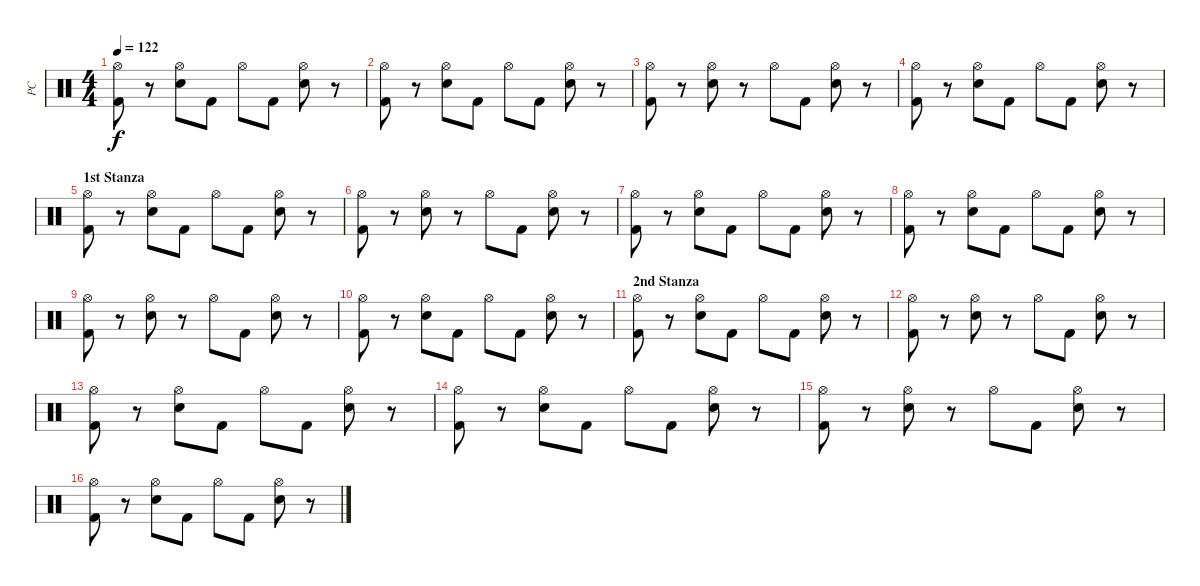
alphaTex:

\track ("PC" "PC") {instrument percussion}
\staff {score}
\articulation defaults
\ts (4 4)
\tempo 122
\clef neutral
\ks c
("Hi-Hat (open)" "Kick (hit) 2").8{dy f} r.8 ("Hi-Hat (open)" "Electric Snare (hit)").8 "Kick (hit) 2".8 "Hi-Hat (open)".8 "Kick (hit) 2".8 ("Hi-Hat (open)" "Electric Snare (hit)").8 r.8 |
("Hi-Hat (open)" "Kick (hit) 2").8 r.8 ("Hi-Hat (open)" "Electric Snare (hit)").8 "Kick (hit) 2".8 "Hi-Hat (open)".8 "Kick (hit) 2".8 ("Hi-Hat (open)" "Electric Snare (hit)").8 r.8 |
("Hi-Hat (open)" "Kick (hit) 2").8 r.8 ("Hi-Hat (open)" "Electric Snare (hit)").8 r.8 "Hi-Hat (open)".8 "Kick (hit) 2".8 ("Hi-Hat (open)" "Electric Snare (hit)").8 r.8 |
("Hi-Hat (open)" "Kick (hit) 2").8 r.8 ("Hi-Hat (open)" "Electric Snare (hit)").8 "Kick (hit) 2".8 "Hi-Hat (open)".8 "Kick (hit) 2".8 ("Hi-Hat (open)" "Electric Snare (hit)").8 r.8 |
\section ("" "1st Stanza")
("Hi-Hat (open)" "Kick (hit) 2").8 r.8 ("Hi-Hat (open)" "Electric Snare (hit)").8 "Kick (hit) 2".8 "Hi-Hat (open)".8 "Kick (hit) 2".8 ("Hi-Hat (open)" "Electric Snare (hit)").8 r.8 |
("Hi-Hat (open)" "Kick (hit) 2").8 r.8 ("Hi-Hat (open)" "Electric Snare (hit)").8 r.8 "Hi-Hat (open)".8 "Kick (hit) 2".8 ("Hi-Hat (open)" "Electric Snare (hit)").8 r.8 |
("Hi-Hat (open)" "Kick (hit) 2").8 r.8 ("Hi-Hat (open)" "Electric Snare (hit)").8 "Kick (hit) 2".8 "Hi-Hat (open)".8 "Kick (hit) 2".8 ("Hi-Hat (open)" "Electric Snare (hit)").8 r.8 |
("Hi-Hat (open)" "Kick (hit) 2").8 r.8 ("Hi-Hat (open)" "Electric Snare (hit)").8 "Kick (hit) 2".8 "Hi-Hat (open)".8 "Kick (hit) 2".8 ("Hi-Hat (open)" "Electric Snare (hit)").8 r.8 |
("Hi-Hat (open)" "Kick (hit) 2").8 r.8 ("Hi-Hat (open)" "Electric Snare (hit)").8 r.8 "Hi-Hat (open)".8 "Kick (hit) 2".8 ("Hi-Hat (open)" "Electric Snare (hit)").8 r.8 |
("Hi-Hat (open)" "Kick (hit) 2").8 r.8 ("Hi-Hat (open)" "Electric Snare (hit)").8 "Kick (hit) 2".8 "Hi-Hat (open)".8 "Kick (hit) 2".8 ("Hi-Hat (open)" "Electric Snare (hit)").8 r.8 |
\section ("" "2nd Stanza")
("Hi-Hat (open)" "Kick (hit) 2").8 r.8 ("Hi-Hat (open)" "Electric Snare (hit)").8 "Kick (hit) 2".8 "Hi-Hat (open)".8 "Kick (hit) 2".8 ("Hi-Hat (open)" "Electric Snare (hit)").8 r.8 |
("Hi-Hat (open)" "Kick (hit) 2").8 r.8 ("Hi-Hat (open)" "Electric Snare (hit)").8 r.8 "Hi-Hat (open)".8 "Kick (hit) 2".8 ("Hi-Hat (open)" "Electric Snare (hit)").8 r.8 |
("Hi-Hat (open)" "Kick (hit) 2").8 r.8 ("Hi-Hat (open)" "Electric Snare (hit)").8 "Kick (hit) 2".8 "Hi-Hat (open)".8 "Kick (hit) 2".8 ("Hi-Hat (open)" "Electric Snare (hit)").8 r.8 |
("Hi-Hat (open)" "Kick (hit) 2").8 r.8 ("Hi-Hat (open)" "Electric Snare (hit)").8 "Kick (hit) 2".8 "Hi-Hat (open)".8 "Kick (hit) 2".8 ("Hi-Hat (open)" "Electric Snare (hit)").8 r.8 |
("Hi-Hat (open)" "Kick (hit) 2").8 r.8 ("Hi-Hat (open)" "Electric Snare (hit)").8 r.8 "Hi-Hat (open)".8 "Kick (hit) 2".8 ("Hi-Hat (open)" "Electric Snare (hit)").8 r.8 |
("Hi-Hat (open)" "Kick (hit) 2").8 r.8 ("Hi-Hat (open)" "Electric Snare (hit)").8 "Kick (hit) 2".8 "Hi-Hat (open)".8 "Kick (hit) 2".8 ("Hi-Hat (open)" "Electric Snare (hit)").8 r.8
